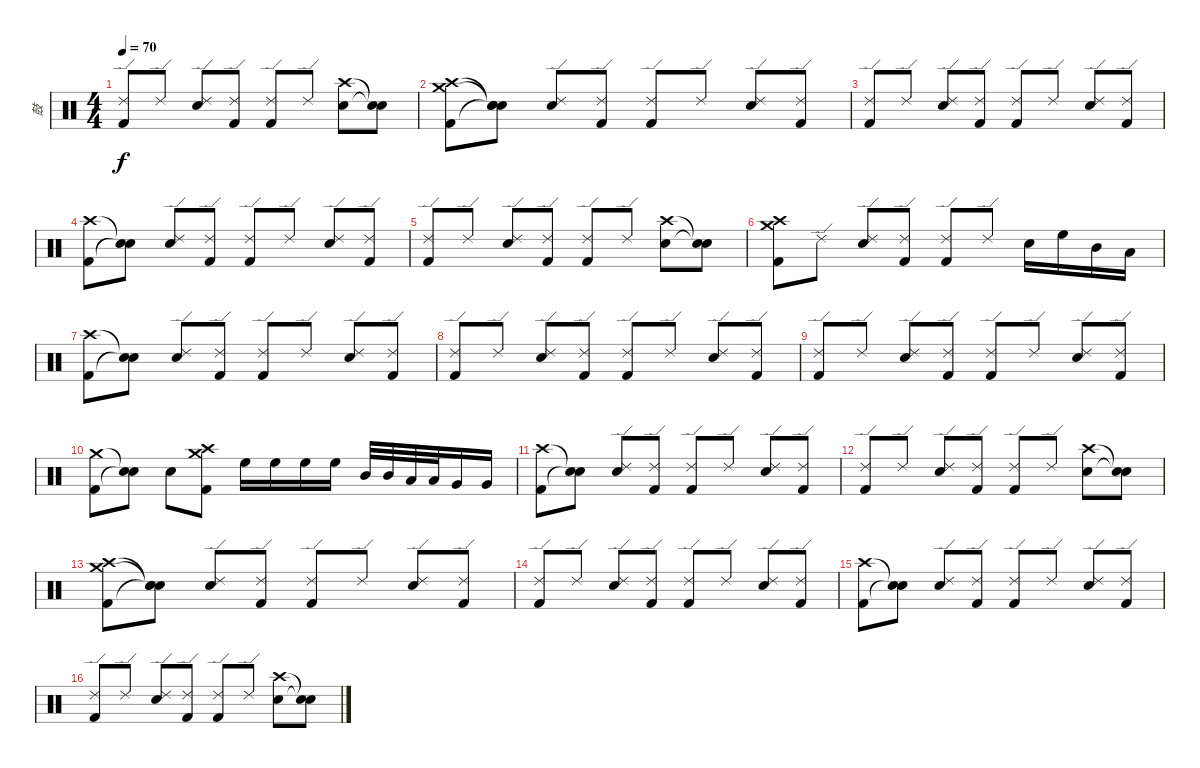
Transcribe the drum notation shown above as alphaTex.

\track ("鼓" "鼓") {instrument percussion}
\staff {score}
\articulation defaults
\ts (4 4)
\tempo 70
\clef neutral
\ks c
("Ride (edge) 2" "Kick (hit) 2").8{dy f} "Ride (edge) 2".8 ("Ride (edge) 2" "Electric Snare (hit)").8 ("Ride (edge) 2" "Kick (hit) 2").8 ("Ride (edge) 2" "Kick (hit) 2").8 "Ride (edge) 2".8 ("Crash high (hit)" "Electric Snare (hit)").8 ("Snare (hit)"{t} "Snare (hit)"{t}).8 |
("Crash high (hit)" "Crash medium (hit)" "Kick (hit) 2").8 ("Snare (hit)"{t} "Snare (hit)"{t} "Snare (hit)"{t}).8 ("Ride (edge) 2" "Electric Snare (hit)").8 ("Ride (edge) 2" "Kick (hit) 2").8 ("Ride (edge) 2" "Kick (hit) 2").8 "Ride (edge) 2".8 ("Ride (edge) 2" "Electric Snare (hit)").8 ("Ride (edge) 2" "Kick (hit) 2").8 |
("Ride (edge) 2" "Kick (hit) 2").8 "Ride (edge) 2".8 ("Ride (edge) 2" "Electric Snare (hit)").8 ("Ride (edge) 2" "Kick (hit) 2").8 ("Ride (edge) 2" "Kick (hit) 2").8 "Ride (edge) 2".8 ("Ride (edge) 2" "Electric Snare (hit)").8 ("Ride (edge) 2" "Kick (hit) 2").8 |
("Crash high (hit)" "Kick (hit) 2").8 ("Snare (hit)"{t} "Snare (hit)"{t}).8 ("Ride (edge) 2" "Electric Snare (hit)").8 ("Ride (edge) 2" "Kick (hit) 2").8 ("Ride (edge) 2" "Kick (hit) 2").8 "Ride (edge) 2".8 ("Ride (edge) 2" "Electric Snare (hit)").8 ("Ride (edge) 2" "Kick (hit) 2").8 |
("Ride (edge) 2" "Kick (hit) 2").8 "Ride (edge) 2".8 ("Ride (edge) 2" "Electric Snare (hit)").8 ("Ride (edge) 2" "Kick (hit) 2").8 ("Ride (edge) 2" "Kick (hit) 2").8 "Ride (edge) 2".8 ("Crash high (hit)" "Electric Snare (hit)").8 ("Snare (hit)"{t} "Snare (hit)"{t}).8 |
("Crash high (hit)" "Crash medium (hit)" "Kick (hit) 2").8 "Ride (edge) 2".8 ("Ride (edge) 2" "Electric Snare (hit)").8 ("Ride (edge) 2" "Kick (hit) 2").8 ("Ride (edge) 2" "Kick (hit) 2").8 "Ride (edge) 2".8 "Electric Snare (hit)".16 "High Floor Tom (hit)".16 "Mid Tom (hit)".16 "Low Tom (hit)".16 |
("Crash high (hit)" "Kick (hit) 2").8 ("Snare (hit)"{t} "Snare (hit)"{t}).8 ("Ride (edge) 2" "Electric Snare (hit)").8 ("Ride (edge) 2" "Kick (hit) 2").8 ("Ride (edge) 2" "Kick (hit) 2").8 "Ride (edge) 2".8 ("Ride (edge) 2" "Electric Snare (hit)").8 ("Ride (edge) 2" "Kick (hit) 2").8 |
("Ride (edge) 2" "Kick (hit) 2").8 "Ride (edge) 2".8 ("Ride (edge) 2" "Electric Snare (hit)").8 ("Ride (edge) 2" "Kick (hit) 2").8 ("Ride (edge) 2" "Kick (hit) 2").8 "Ride (edge) 2".8 ("Ride (edge) 2" "Electric Snare (hit)").8 ("Ride (edge) 2" "Kick (hit) 2").8 |
("Ride (edge) 2" "Kick (hit) 2").8 "Ride (edge) 2".8 ("Ride (edge) 2" "Electric Snare (hit)").8 ("Ride (edge) 2" "Kick (hit) 2").8 ("Ride (edge) 2" "Kick (hit) 2").8 "Ride (edge) 2".8 ("Ride (edge) 2" "Electric Snare (hit)").8 ("Ride (edge) 2" "Kick (hit) 2").8 |
("Crash medium (hit)" "Kick (hit) 2").8 ("Snare (hit)"{t} "Snare (hit)"{t}).8 "Electric Snare (hit)".8 ("Crash high (hit)" "Crash medium (hit)" "Kick (hit) 2").8 "High Floor Tom (hit)".16 "High Floor Tom (hit)".16 "High Floor Tom (hit)".16 "High Floor Tom (hit)".16 "Mid Tom (hit)".32 "Mid Tom (hit)".32 "Low Tom (hit)".32 "Low Tom (hit)".32 "Very Low Tom (hit)".16 "Very Low Tom (hit)".16 |
("Crash high (hit)" "Kick (hit) 2").8 ("Snare (hit)"{t} "Snare (hit)"{t}).8 ("Ride (edge) 2" "Electric Snare (hit)").8 ("Ride (edge) 2" "Kick (hit) 2").8 ("Ride (edge) 2" "Kick (hit) 2").8 "Ride (edge) 2".8 ("Ride (edge) 2" "Electric Snare (hit)").8 ("Ride (edge) 2" "Kick (hit) 2").8 |
("Ride (edge) 2" "Kick (hit) 2").8 "Ride (edge) 2".8 ("Ride (edge) 2" "Electric Snare (hit)").8 ("Ride (edge) 2" "Kick (hit) 2").8 ("Ride (edge) 2" "Kick (hit) 2").8 "Ride (edge) 2".8 ("Crash high (hit)" "Electric Snare (hit)").8 ("Snare (hit)"{t} "Snare (hit)"{t}).8 |
("Crash high (hit)" "Crash medium (hit)" "Kick (hit) 2").8 ("Snare (hit)"{t} "Snare (hit)"{t} "Snare (hit)"{t}).8 ("Ride (edge) 2" "Electric Snare (hit)").8 ("Ride (edge) 2" "Kick (hit) 2").8 ("Ride (edge) 2" "Kick (hit) 2").8 "Ride (edge) 2".8 ("Ride (edge) 2" "Electric Snare (hit)").8 ("Ride (edge) 2" "Kick (hit) 2").8 |
("Ride (edge) 2" "Kick (hit) 2").8 "Ride (edge) 2".8 ("Ride (edge) 2" "Electric Snare (hit)").8 ("Ride (edge) 2" "Kick (hit) 2").8 ("Ride (edge) 2" "Kick (hit) 2").8 "Ride (edge) 2".8 ("Ride (edge) 2" "Electric Snare (hit)").8 ("Ride (edge) 2" "Kick (hit) 2").8 |
("Crash high (hit)" "Kick (hit) 2").8 ("Snare (hit)"{t} "Snare (hit)"{t}).8 ("Ride (edge) 2" "Electric Snare (hit)").8 ("Ride (edge) 2" "Kick (hit) 2").8 ("Ride (edge) 2" "Kick (hit) 2").8 "Ride (edge) 2".8 ("Ride (edge) 2" "Electric Snare (hit)").8 ("Ride (edge) 2" "Kick (hit) 2").8 |
("Ride (edge) 2" "Kick (hit) 2").8 "Ride (edge) 2".8 ("Ride (edge) 2" "Electric Snare (hit)").8 ("Ride (edge) 2" "Kick (hit) 2").8 ("Ride (edge) 2" "Kick (hit) 2").8 "Ride (edge) 2".8 ("Crash high (hit)" "Electric Snare (hit)").8 ("Snare (hit)"{t} "Snare (hit)"{t}).8
